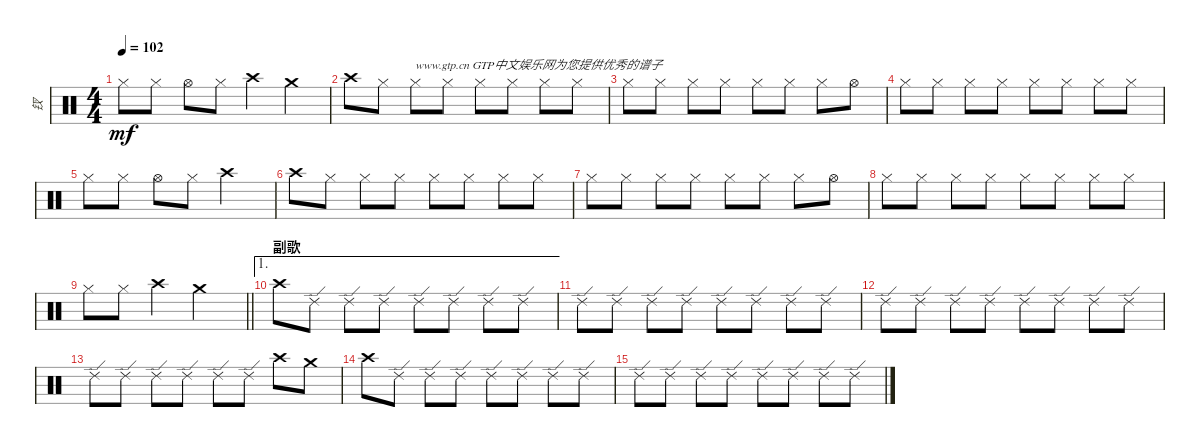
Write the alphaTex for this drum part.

\track ("钗" "钗") {instrument percussion}
\staff {score}
\articulation defaults
\ts (4 4)
\tempo 102
\clef neutral
\ks c "Hi-Hat (closed)".8{dy mf} "Hi-Hat (closed)".8 "Hi-Hat (open)".8 "Hi-Hat (closed)".8 "Crash high (hit)".4 "Crash medium (hit)".4
|
"Crash high (hit)".8 "Hi-Hat (closed)".8 "Hi-Hat (closed)".8{txt "www.gtp.cn GTP中文娱乐网为您提供优秀的谱子"} "Hi-Hat (closed)".8 "Hi-Hat (closed)".8 "Hi-Hat (closed)".8 "Hi-Hat (closed)".8 "Hi-Hat (closed)".8 |
"Hi-Hat (closed)".8 "Hi-Hat (closed)".8 "Hi-Hat (closed)".8 "Hi-Hat (closed)".8 "Hi-Hat (closed)".8 "Hi-Hat (closed)".8 "Hi-Hat (closed)".8 "Hi-Hat (open)".8 |
"Hi-Hat (closed)".8 "Hi-Hat (closed)".8 "Hi-Hat (closed)".8 "Hi-Hat (closed)".8 "Hi-Hat (closed)".8 "Hi-Hat (closed)".8 "Hi-Hat (closed)".8 "Hi-Hat (closed)".8 |
"Hi-Hat (closed)".8 "Hi-Hat (closed)".8 "Hi-Hat (open)".8 "Hi-Hat (closed)".8 "Crash high (hit)".2 |
"Crash high (hit)".8 "Hi-Hat (closed)".8 "Hi-Hat (closed)".8 "Hi-Hat (closed)".8 "Hi-Hat (closed)".8 "Hi-Hat (closed)".8 "Hi-Hat (closed)".8 "Hi-Hat (closed)".8 |
"Hi-Hat (closed)".8 "Hi-Hat (closed)".8 "Hi-Hat (closed)".8 "Hi-Hat (closed)".8 "Hi-Hat (closed)".8 "Hi-Hat (closed)".8 "Hi-Hat (closed)".8 "Hi-Hat (open)".8 |
"Hi-Hat (closed)".8 "Hi-Hat (closed)".8 "Hi-Hat (closed)".8 "Hi-Hat (closed)".8 "Hi-Hat (closed)".8 "Hi-Hat (closed)".8 "Hi-Hat (closed)".8 "Hi-Hat (closed)".8 |
\barLineRight lightlight "Hi-Hat (closed)".8 "Hi-Hat (closed)".8 "Crash high (hit)".4 "Crash medium (hit)".2
|
\ae 1
\section ("" "副歌")
"Crash high (hit)".8 "Ride (edge) 2".8 "Ride (edge) 2".8 "Ride (edge) 2".8 "Ride (edge) 2".8 "Ride (edge) 2".8 "Ride (edge) 2".8 "Ride (edge) 2".8 |
"Ride (edge) 2".8 "Ride (edge) 2".8 "Ride (edge) 2".8 "Ride (edge) 2".8 "Ride (edge) 2".8 "Ride (edge) 2".8 "Ride (edge) 2".8 "Ride (edge) 2".8 |
"Ride (edge) 2".8 "Ride (edge) 2".8 "Ride (edge) 2".8 "Ride (edge) 2".8 "Ride (edge) 2".8 "Ride (edge) 2".8 "Ride (edge) 2".8 "Ride (edge) 2".8 |
"Ride (edge) 2".8 "Ride (edge) 2".8 "Ride (edge) 2".8 "Ride (edge) 2".8 "Ride (edge) 2".8 "Ride (edge) 2".8 "Crash high (hit)".8 "Crash medium (hit)".8 |
"Crash high (hit)".8 "Ride (edge) 2".8 "Ride (edge) 2".8 "Ride (edge) 2".8 "Ride (edge) 2".8 "Ride (edge) 2".8 "Ride (edge) 2".8 "Ride (edge) 2".8 |
"Ride (edge) 2".8 "Ride (edge) 2".8 "Ride (edge) 2".8 "Ride (edge) 2".8 "Ride (edge) 2".8 "Ride (edge) 2".8 "Ride (edge) 2".8 "Ride (edge) 2".8
